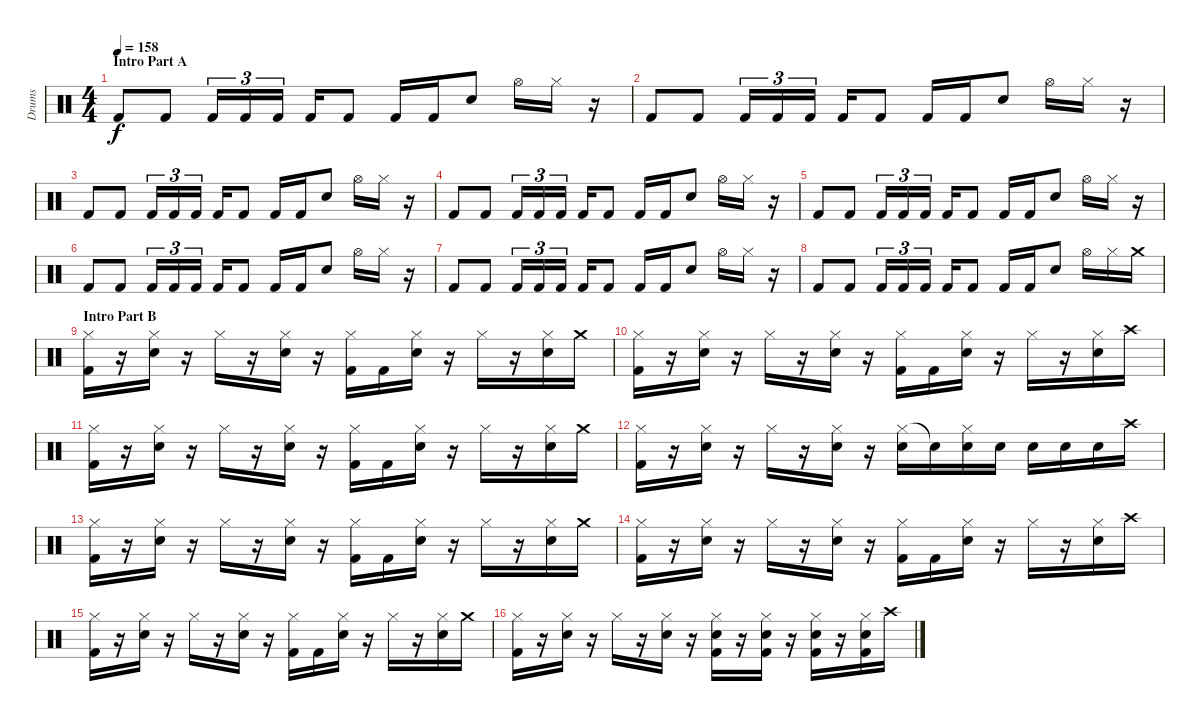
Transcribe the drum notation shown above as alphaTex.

\track ("Drums" "Drums") {instrument percussion}
\staff {score}
\articulation defaults
\ts (4 4)
\section ("" "Intro Part A")
\tempo 158
\clef neutral
\ks c "Kick (hit) 2".8{dy f} "Kick (hit) 2".8 "Kick (hit) 2".16{tu (3 2)} "Kick (hit) 2".16{tu (3 2)} "Kick (hit) 2".16{tu (3 2)} "Kick (hit) 2".16 "Kick (hit) 2".8 "Kick (hit) 2".16 "Kick (hit) 2".16 "Electric Snare (hit)".8 "Hi-Hat (open)".16 "Hi-Hat (closed)".16
r.16 |
"Kick (hit) 2".8 "Kick (hit) 2".8 "Kick (hit) 2".16{tu (3 2)} "Kick (hit) 2".16{tu (3 2)} "Kick (hit) 2".16{tu (3 2)} "Kick (hit) 2".16 "Kick (hit) 2".8 "Kick (hit) 2".16 "Kick (hit) 2".16 "Electric Snare (hit)".8 "Hi-Hat (open)".16 "Hi-Hat (closed)".16 r.16 |
"Kick (hit) 2".8 "Kick (hit) 2".8 "Kick (hit) 2".16{tu (3 2)} "Kick (hit) 2".16{tu (3 2)} "Kick (hit) 2".16{tu (3 2)} "Kick (hit) 2".16 "Kick (hit) 2".8 "Kick (hit) 2".16 "Kick (hit) 2".16 "Electric Snare (hit)".8 "Hi-Hat (open)".16 "Hi-Hat (closed)".16 r.16 |
"Kick (hit) 2".8 "Kick (hit) 2".8 "Kick (hit) 2".16{tu (3 2)} "Kick (hit) 2".16{tu (3 2)} "Kick (hit) 2".16{tu (3 2)} "Kick (hit) 2".16 "Kick (hit) 2".8 "Kick (hit) 2".16 "Kick (hit) 2".16 "Electric Snare (hit)".8 "Hi-Hat (open)".16 "Hi-Hat (closed)".16 r.16 |
"Kick (hit) 2".8 "Kick (hit) 2".8 "Kick (hit) 2".16{tu (3 2)} "Kick (hit) 2".16{tu (3 2)} "Kick (hit) 2".16{tu (3 2)} "Kick (hit) 2".16 "Kick (hit) 2".8 "Kick (hit) 2".16 "Kick (hit) 2".16 "Electric Snare (hit)".8 "Hi-Hat (open)".16 "Hi-Hat (closed)".16 r.16 |
"Kick (hit) 2".8 "Kick (hit) 2".8 "Kick (hit) 2".16{tu (3 2)} "Kick (hit) 2".16{tu (3 2)} "Kick (hit) 2".16{tu (3 2)} "Kick (hit) 2".16 "Kick (hit) 2".8 "Kick (hit) 2".16 "Kick (hit) 2".16 "Electric Snare (hit)".8 "Hi-Hat (open)".16 "Hi-Hat (closed)".16 r.16 |
"Kick (hit) 2".8 "Kick (hit) 2".8 "Kick (hit) 2".16{tu (3 2)} "Kick (hit) 2".16{tu (3 2)} "Kick (hit) 2".16{tu (3 2)} "Kick (hit) 2".16 "Kick (hit) 2".8 "Kick (hit) 2".16 "Kick (hit) 2".16 "Electric Snare (hit)".8 "Hi-Hat (open)".16 "Hi-Hat (closed)".16 r.16 |
"Kick (hit) 2".8 "Kick (hit) 2".8 "Kick (hit) 2".16{tu (3 2)} "Kick (hit) 2".16{tu (3 2)} "Kick (hit) 2".16{tu (3 2)} "Kick (hit) 2".16 "Kick (hit) 2".8 "Kick (hit) 2".16 "Kick (hit) 2".16 "Electric Snare (hit)".8 "Hi-Hat (open)".16 "Hi-Hat (closed)".16 "Crash medium (hit)".16 |
\section ("" "Intro Part B")
("Hi-Hat (closed)" "Kick (hit) 2").16 r.16 ("Hi-Hat (closed)" "Electric Snare (hit)").16 r.16 "Hi-Hat (closed)".16 r.16 ("Hi-Hat (closed)" "Electric Snare (hit)").16 r.16 ("Hi-Hat (closed)" "Kick (hit) 2").16 "Kick (hit) 2".16 ("Hi-Hat (closed)" "Electric Snare (hit)").16 r.16 "Hi-Hat (closed)".16 r.16 ("Hi-Hat (closed)" "Electric Snare (hit)").16 "Crash medium (hit)".16 |
("Hi-Hat (closed)" "Kick (hit) 2").16 r.16 ("Hi-Hat (closed)" "Electric Snare (hit)").16 r.16 "Hi-Hat (closed)".16 r.16 ("Hi-Hat (closed)" "Electric Snare (hit)").16 r.16 ("Hi-Hat (closed)" "Kick (hit) 2").16 "Kick (hit) 2".16 ("Hi-Hat (closed)" "Electric Snare (hit)").16 r.16 "Hi-Hat (closed)".16 r.16 ("Hi-Hat (closed)" "Electric Snare (hit)").16 "Crash high (hit)".16 |
("Hi-Hat (closed)" "Kick (hit) 2").16 r.16 ("Hi-Hat (closed)" "Electric Snare (hit)").16 r.16 "Hi-Hat (closed)".16 r.16 ("Hi-Hat (closed)" "Electric Snare (hit)").16 r.16 ("Hi-Hat (closed)" "Kick (hit) 2").16 "Kick (hit) 2".16 ("Hi-Hat (closed)" "Electric Snare (hit)").16 r.16 "Hi-Hat (closed)".16 r.16 ("Hi-Hat (closed)" "Electric Snare (hit)").16 "Crash medium (hit)".16 |
("Hi-Hat (closed)" "Kick (hit) 2").16 r.16 ("Hi-Hat (closed)" "Electric Snare (hit)").16 r.16 "Hi-Hat (closed)".16 r.16 ("Hi-Hat (closed)" "Electric Snare (hit)").16 r.16 ("Hi-Hat (closed)" "Electric Snare (hit)").16 "Snare (hit)"{t}.16 ("Hi-Hat (closed)" "Electric Snare (hit)").16 "Electric Snare (hit)".16 "Electric Snare (hit)".16 "Electric Snare (hit)".16 "Electric Snare (hit)".16 "Crash high (hit)".16 |
("Hi-Hat (closed)" "Kick (hit) 2").16 r.16 ("Hi-Hat (closed)" "Electric Snare (hit)").16 r.16 "Hi-Hat (closed)".16 r.16 ("Hi-Hat (closed)" "Electric Snare (hit)").16 r.16 ("Hi-Hat (closed)" "Kick (hit) 2").16 "Kick (hit) 2".16 ("Hi-Hat (closed)" "Electric Snare (hit)").16 r.16 "Hi-Hat (closed)".16 r.16 ("Hi-Hat (closed)" "Electric Snare (hit)").16 "Crash medium (hit)".16 |
("Hi-Hat (closed)" "Kick (hit) 2").16 r.16 ("Hi-Hat (closed)" "Electric Snare (hit)").16 r.16 "Hi-Hat (closed)".16 r.16 ("Hi-Hat (closed)" "Electric Snare (hit)").16 r.16 ("Hi-Hat (closed)" "Kick (hit) 2").16 "Kick (hit) 2".16 ("Hi-Hat (closed)" "Electric Snare (hit)").16 r.16 "Hi-Hat (closed)".16 r.16 ("Hi-Hat (closed)" "Electric Snare (hit)").16 "Crash high (hit)".16 |
("Hi-Hat (closed)" "Kick (hit) 2").16 r.16 ("Hi-Hat (closed)" "Electric Snare (hit)").16 r.16 "Hi-Hat (closed)".16 r.16 ("Hi-Hat (closed)" "Electric Snare (hit)").16 r.16 ("Hi-Hat (closed)" "Kick (hit) 2").16 "Kick (hit) 2".16 ("Hi-Hat (closed)" "Electric Snare (hit)").16 r.16 "Hi-Hat (closed)".16 r.16 ("Hi-Hat (closed)" "Electric Snare (hit)").16 "Crash medium (hit)".16 |
("Hi-Hat (closed)" "Kick (hit) 2").16 r.16 ("Hi-Hat (closed)" "Electric Snare (hit)").16 r.16 "Hi-Hat (closed)".16 r.16 ("Hi-Hat (closed)" "Electric Snare (hit)").16 r.16 ("Hi-Hat (closed)" "Electric Snare (hit)" "Kick (hit) 2").16 r.16 ("Hi-Hat (closed)" "Electric Snare (hit)" "Kick (hit) 2").16 r.16 ("Hi-Hat (closed)" "Electric Snare (hit)" "Kick (hit) 2").16 r.16 ("Hi-Hat (closed)" "Electric Snare (hit)" "Kick (hit) 2").16 "Crash high (hit)".16
